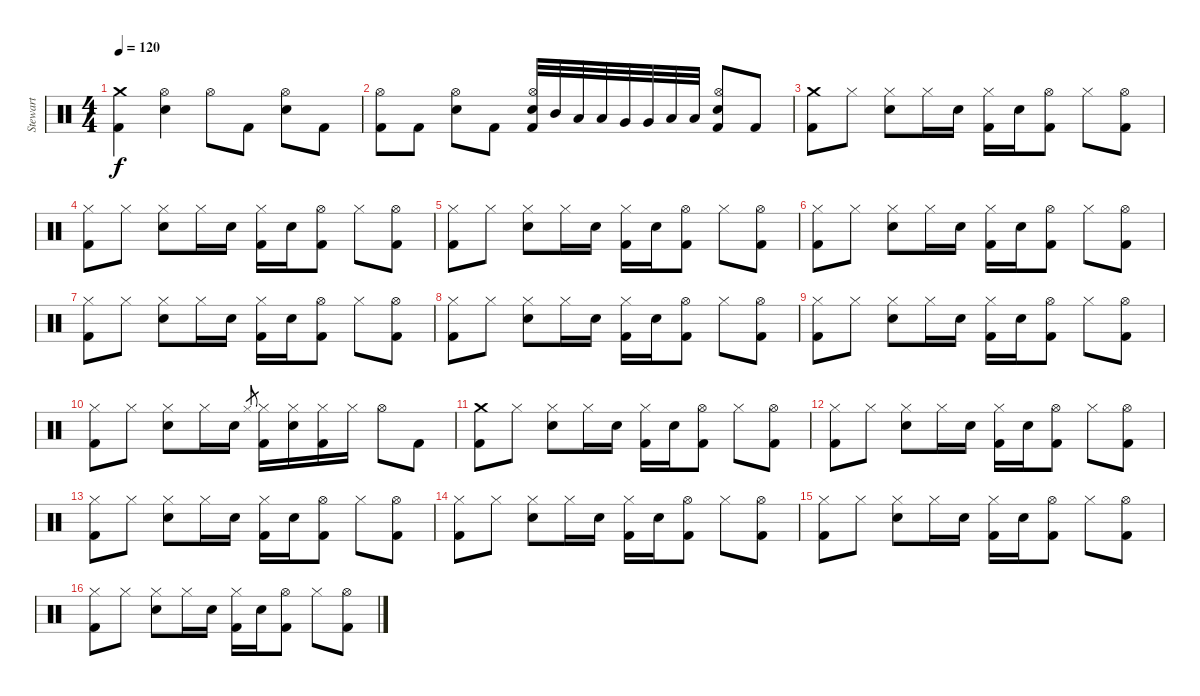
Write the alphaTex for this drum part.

\track ("Stewart" "Stewart") {instrument percussion}
\staff {score}
\articulation defaults
\ts (4 4)
\tempo 120
\clef neutral
\ks c
("Crash medium (hit)" "Kick (hit) 2").4{dy f} ("Hi-Hat (open)" "Electric Snare (hit)").4 "Hi-Hat (open)".8 "Kick (hit) 2".8 ("Hi-Hat (open)" "Electric Snare (hit)").8 "Kick (hit) 2".8 |
("Hi-Hat (open)" "Kick (hit) 2").8 "Kick (hit) 2".8 ("Hi-Hat (open)" "Electric Snare (hit)").8 "Kick (hit) 2".8 ("Hi-Hat (open)" "Electric Snare (hit)" "Kick (hit) 2").32 "Mid Tom (hit)".32 "Low Tom (hit)".32 "Low Tom (hit)".32 "Very Low Tom (hit)".32 "Very Low Tom (hit)".32 "Low Floor Tom (hit)".32 "Low Floor Tom (hit)".32 ("Hi-Hat (open)" "Electric Snare (hit)" "Kick (hit) 2").8 "Kick (hit) 2".8 |
("Crash medium (hit)" "Kick (hit) 2").8 "Hi-Hat (closed)".8 ("Hi-Hat (closed)" "Electric Snare (hit)").8 "Hi-Hat (closed)".16 "Electric Snare (hit)".16 ("Hi-Hat (closed)" "Kick (hit) 2").16 "Electric Snare (hit)".16 ("Hi-Hat (open)" "Kick (hit) 2").8 "Hi-Hat (closed)".8 ("Hi-Hat (open)" "Kick (hit) 2").8 |
("Hi-Hat (closed)" "Kick (hit) 2").8 "Hi-Hat (closed)".8 ("Hi-Hat (closed)" "Electric Snare (hit)").8 "Hi-Hat (closed)".16 "Electric Snare (hit)".16 ("Hi-Hat (closed)" "Kick (hit) 2").16 "Electric Snare (hit)".16 ("Hi-Hat (open)" "Kick (hit) 2").8 "Hi-Hat (closed)".8 ("Hi-Hat (open)" "Kick (hit) 2").8 |
("Hi-Hat (closed)" "Kick (hit) 2").8 "Hi-Hat (closed)".8 ("Hi-Hat (closed)" "Electric Snare (hit)").8 "Hi-Hat (closed)".16 "Electric Snare (hit)".16 ("Hi-Hat (closed)" "Kick (hit) 2").16 "Electric Snare (hit)".16 ("Hi-Hat (open)" "Kick (hit) 2").8 "Hi-Hat (closed)".8 ("Hi-Hat (open)" "Kick (hit) 2").8 |
("Hi-Hat (closed)" "Kick (hit) 2").8 "Hi-Hat (closed)".8 ("Hi-Hat (closed)" "Electric Snare (hit)").8 "Hi-Hat (closed)".16 "Electric Snare (hit)".16 ("Hi-Hat (closed)" "Kick (hit) 2").16 "Electric Snare (hit)".16 ("Hi-Hat (open)" "Kick (hit) 2").8 "Hi-Hat (closed)".8 ("Hi-Hat (open)" "Kick (hit) 2").8 |
("Hi-Hat (closed)" "Kick (hit) 2").8 "Hi-Hat (closed)".8 ("Hi-Hat (closed)" "Electric Snare (hit)").8 "Hi-Hat (closed)".16 "Electric Snare (hit)".16 ("Hi-Hat (closed)" "Kick (hit) 2").16 "Electric Snare (hit)".16 ("Hi-Hat (open)" "Kick (hit) 2").8 "Hi-Hat (closed)".8 ("Hi-Hat (open)" "Kick (hit) 2").8 |
("Hi-Hat (closed)" "Kick (hit) 2").8 "Hi-Hat (closed)".8 ("Hi-Hat (closed)" "Electric Snare (hit)").8 "Hi-Hat (closed)".16 "Electric Snare (hit)".16 ("Hi-Hat (closed)" "Kick (hit) 2").16 "Electric Snare (hit)".16 ("Hi-Hat (open)" "Kick (hit) 2").8 "Hi-Hat (closed)".8 ("Hi-Hat (open)" "Kick (hit) 2").8 |
("Hi-Hat (closed)" "Kick (hit) 2").8 "Hi-Hat (closed)".8 ("Hi-Hat (closed)" "Electric Snare (hit)").8 "Hi-Hat (closed)".16 "Electric Snare (hit)".16 ("Hi-Hat (closed)" "Kick (hit) 2").16 "Electric Snare (hit)".16 ("Hi-Hat (open)" "Kick (hit) 2").8 "Hi-Hat (closed)".8 ("Hi-Hat (open)" "Kick (hit) 2").8 |
("Hi-Hat (closed)" "Kick (hit) 2").8 "Hi-Hat (closed)".8 ("Hi-Hat (closed)" "Electric Snare (hit)").8 "Hi-Hat (closed)".16 "Electric Snare (hit)".16 "Hi-Hat (closed)".8{gr} ("Hi-Hat (closed)" "Kick (hit) 2").16 ("Hi-Hat (closed)" "Electric Snare (hit)").16 ("Hi-Hat (closed)" "Kick (hit) 2").16 "Hi-Hat (closed)".16 "Hi-Hat (open)".8 "Kick (hit) 2".8 |
("Crash medium (hit)" "Kick (hit) 2").8 "Hi-Hat (closed)".8 ("Hi-Hat (closed)" "Electric Snare (hit)").8 "Hi-Hat (closed)".16 "Electric Snare (hit)".16 ("Hi-Hat (closed)" "Kick (hit) 2").16 "Electric Snare (hit)".16 ("Hi-Hat (open)" "Kick (hit) 2").8 "Hi-Hat (closed)".8 ("Hi-Hat (open)" "Kick (hit) 2").8 |
("Hi-Hat (closed)" "Kick (hit) 2").8 "Hi-Hat (closed)".8 ("Hi-Hat (closed)" "Electric Snare (hit)").8 "Hi-Hat (closed)".16 "Electric Snare (hit)".16 ("Hi-Hat (closed)" "Kick (hit) 2").16 "Electric Snare (hit)".16 ("Hi-Hat (open)" "Kick (hit) 2").8 "Hi-Hat (closed)".8 ("Hi-Hat (open)" "Kick (hit) 2").8 |
("Hi-Hat (closed)" "Kick (hit) 2").8 "Hi-Hat (closed)".8 ("Hi-Hat (closed)" "Electric Snare (hit)").8 "Hi-Hat (closed)".16 "Electric Snare (hit)".16 ("Hi-Hat (closed)" "Kick (hit) 2").16 "Electric Snare (hit)".16 ("Hi-Hat (open)" "Kick (hit) 2").8 "Hi-Hat (closed)".8 ("Hi-Hat (open)" "Kick (hit) 2").8 |
("Hi-Hat (closed)" "Kick (hit) 2").8 "Hi-Hat (closed)".8 ("Hi-Hat (closed)" "Electric Snare (hit)").8 "Hi-Hat (closed)".16 "Electric Snare (hit)".16 ("Hi-Hat (closed)" "Kick (hit) 2").16 "Electric Snare (hit)".16 ("Hi-Hat (open)" "Kick (hit) 2").8 "Hi-Hat (closed)".8 ("Hi-Hat (open)" "Kick (hit) 2").8 |
("Hi-Hat (closed)" "Kick (hit) 2").8 "Hi-Hat (closed)".8 ("Hi-Hat (closed)" "Electric Snare (hit)").8 "Hi-Hat (closed)".16 "Electric Snare (hit)".16 ("Hi-Hat (closed)" "Kick (hit) 2").16 "Electric Snare (hit)".16 ("Hi-Hat (open)" "Kick (hit) 2").8 "Hi-Hat (closed)".8 ("Hi-Hat (open)" "Kick (hit) 2").8 |
("Hi-Hat (closed)" "Kick (hit) 2").8 "Hi-Hat (closed)".8 ("Hi-Hat (closed)" "Electric Snare (hit)").8 "Hi-Hat (closed)".16 "Electric Snare (hit)".16 ("Hi-Hat (closed)" "Kick (hit) 2").16 "Electric Snare (hit)".16 ("Hi-Hat (open)" "Kick (hit) 2").8 "Hi-Hat (closed)".8 ("Hi-Hat (open)" "Kick (hit) 2").8
